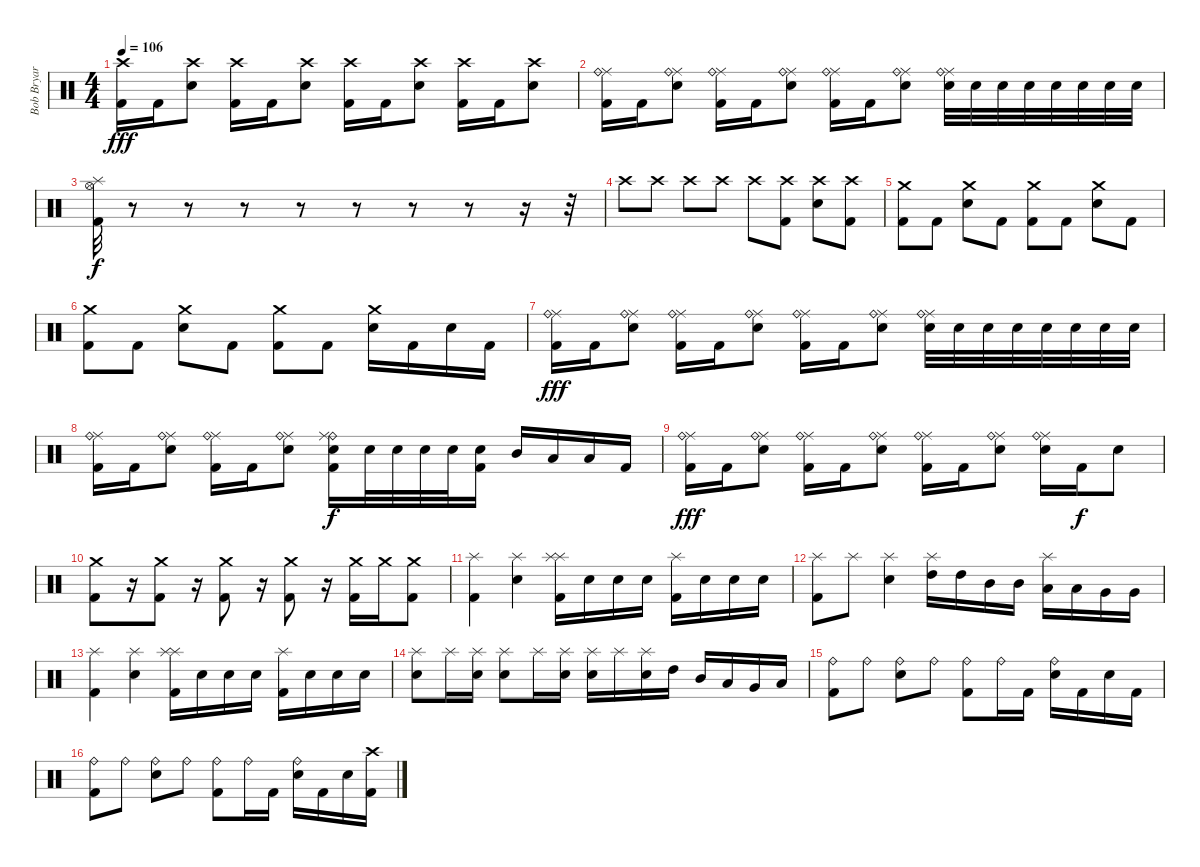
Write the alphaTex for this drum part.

\track ("Bob Bryar" "Bob Bryar") {instrument percussion}
\staff {score}
\articulation defaults
\ts (4 4)
\tempo 106
\clef neutral
\ks c
("Kick (hit) 2" "Crash high (hit)").16{dy fff} "Kick (hit) 2".16 ("Electric Snare (hit)" "Crash high (hit)").8 ("Kick (hit) 2" "Crash high (hit)").16 "Kick (hit) 2".16 ("Electric Snare (hit)" "Crash high (hit)").8 ("Kick (hit) 2" "Crash high (hit)").16 "Kick (hit) 2".16 ("Electric Snare (hit)" "Crash high (hit)").8 ("Kick (hit) 2" "Crash high (hit)").16 "Kick (hit) 2".16 ("Electric Snare (hit)" "Crash high (hit)").8 |
("Kick (hit) 2" "Ride (middle)" "Ride (bell)").16 "Kick (hit) 2".16 ("Electric Snare (hit)" "Ride (middle)" "Ride (bell)").8 ("Kick (hit) 2" "Ride (middle)" "Ride (bell)").16 "Kick (hit) 2".16 ("Electric Snare (hit)" "Ride (middle)" "Ride (bell)").8 ("Kick (hit) 2" "Ride (middle)" "Ride (bell)").16 "Kick (hit) 2".16 ("Electric Snare (hit)" "Ride (middle)" "Ride (bell)").8 ("Electric Snare (hit)" "Ride (middle)" "Ride (bell)").32 "Electric Snare (hit)".32 "Electric Snare (hit)".32 "Electric Snare (hit)".32 "Electric Snare (hit)".32 "Electric Snare (hit)".32 "Electric Snare (hit)".32 "Electric Snare (hit)".32 |
("Hi-Hat (open)" "Kick (hit) 2" "Splash (hit)").32{dy f} r.8 r.8 r.8 r.8 r.8 r.8 r.8 r.16 r.32 |
"Crash high (hit)".8{volume 6} "Crash high (hit)".8{volume 16} "Crash high (hit)".8 "Crash high (hit)".8 "Crash high (hit)".8 ("Crash high (hit)" "Kick (hit) 2").8 ("Crash high (hit)" "Electric Snare (hit)").8 ("Crash high (hit)" "Kick (hit) 2").8 |
("Kick (hit) 2" "Crash medium (hit)").8 "Kick (hit) 2".8 ("Electric Snare (hit)" "Crash medium (hit)").8 "Kick (hit) 2".8 ("Kick (hit) 2" "Crash medium (hit)").8 "Kick (hit) 2".8 ("Electric Snare (hit)" "Crash medium (hit)").8 "Kick (hit) 2".8 |
("Kick (hit) 2" "Crash medium (hit)").8 "Kick (hit) 2".8 ("Electric Snare (hit)" "Crash medium (hit)").8 "Kick (hit) 2".8 ("Kick (hit) 2" "Crash medium (hit)").8 "Kick (hit) 2".8 ("Electric Snare (hit)" "Crash medium (hit)").16 "Kick (hit) 2".16 "Electric Snare (hit)".16 "Kick (hit) 2".16 |
("Kick (hit) 2" "Ride (middle)" "Ride (bell)").16{dy fff} "Kick (hit) 2".16 ("Electric Snare (hit)" "Ride (middle)" "Ride (bell)").8 ("Kick (hit) 2" "Ride (middle)" "Ride (bell)").16 "Kick (hit) 2".16 ("Electric Snare (hit)" "Ride (middle)" "Ride (bell)").8 ("Kick (hit) 2" "Ride (middle)" "Ride (bell)").16 "Kick (hit) 2".16 ("Electric Snare (hit)" "Ride (middle)" "Ride (bell)").8 ("Electric Snare (hit)" "Ride (middle)" "Ride (bell)").32 "Electric Snare (hit)".32 "Electric Snare (hit)".32 "Electric Snare (hit)".32 "Electric Snare (hit)".32 "Electric Snare (hit)".32 "Electric Snare (hit)".32 "Electric Snare (hit)".32 |
("Kick (hit) 2" "Ride (middle)" "Ride (bell)").16 "Kick (hit) 2".16 ("Electric Snare (hit)" "Ride (middle)" "Ride (bell)").8 ("Kick (hit) 2" "Ride (middle)" "Ride (bell)").16 "Kick (hit) 2".16 ("Electric Snare (hit)" "Ride (middle)" "Ride (bell)").8 ("Kick (hit) 2" "Electric Snare (hit)" "Ride (bell)" "Ride (middle)").16{dy f} "Electric Snare (hit)".32 "Electric Snare (hit)".32 "Electric Snare (hit)".32 "Electric Snare (hit)".32 ("Electric Snare (hit)" "Kick (hit) 2").16 "Mid Tom (hit)".16 "Low Tom (hit)".16 "Low Floor Tom (hit)".16 "Kick (hit) 2".16 |
("Kick (hit) 2" "Ride (middle)" "Ride (bell)").16{dy fff} "Kick (hit) 2".16 ("Electric Snare (hit)" "Ride (middle)" "Ride (bell)").8 ("Kick (hit) 2" "Ride (middle)" "Ride (bell)").16 "Kick (hit) 2".16 ("Electric Snare (hit)" "Ride (middle)" "Ride (bell)").8 ("Kick (hit) 2" "Ride (middle)" "Ride (bell)").16 "Kick (hit) 2".16 ("Electric Snare (hit)" "Ride (middle)" "Ride (bell)").8 ("Electric Snare (hit)" "Ride (middle)" "Ride (bell)").16 "Kick (hit) 2".16{dy f} "Electric Snare (hit)".8 |
("Kick (hit) 2" "Crash medium (hit)").8 r.16 ("Crash medium (hit)" "Kick (hit) 2").8 r.16 ("Crash medium (hit)" "Kick (hit) 2").8 r.16 ("Crash medium (hit)" "Kick (hit) 2").8 r.16 ("Crash medium (hit)" "Kick (hit) 2").16 "Crash medium (hit)".16 ("Crash medium (hit)" "Kick (hit) 2").8 |
("Kick (hit) 2" "Splash (hit)").4 ("Electric Snare (hit)" "Splash (hit)").4 ("Kick (hit) 2" "Splash (hit)" "Splash (hit)").16 "Electric Snare (hit)".16 "Electric Snare (hit)".16 "Electric Snare (hit)".16 ("Kick (hit) 2" "Splash (hit)").16 "Electric Snare (hit)".16 "Electric Snare (hit)".16 "Electric Snare (hit)".16 |
("Kick (hit) 2" "Splash (hit)").8 "Splash (hit)".8 ("Electric Snare (hit)" "Splash (hit)").4 ("High Tom (hit)" "Splash (hit)").16 "High Tom (hit)".16 "Mid Tom (hit)".16 "Mid Tom (hit)".16 ("Low Tom (hit)" "Splash (hit)").16 "Low Tom (hit)".16 "Very Low Tom (hit)".16 "Very Low Tom (hit)".16 |
("Kick (hit) 2" "Splash (hit)").4 ("Electric Snare (hit)" "Splash (hit)").4 ("Kick (hit) 2" "Splash (hit)" "Splash (hit)").16 "Electric Snare (hit)".16 "Electric Snare (hit)".16 "Electric Snare (hit)".16 ("Kick (hit) 2" "Splash (hit)").16 "Electric Snare (hit)".16 "Electric Snare (hit)".16 "Electric Snare (hit)".16 |
("Electric Snare (hit)" "Splash (hit)").8 "Splash (hit)".16 ("Electric Snare (hit)" "Splash (hit)").16 ("Electric Snare (hit)" "Splash (hit)").8 "Splash (hit)".16 ("Electric Snare (hit)" "Splash (hit)").16 ("Electric Snare (hit)" "Splash (hit)").16 "Splash (hit)".16 ("Electric Snare (hit)" "Splash (hit)").16 "High Tom (hit)".16 "Mid Tom (hit)".16 "Low Tom (hit)".16 "Very Low Tom (hit)".16 "Low Floor Tom (hit)".16 |
("Kick (hit) 2" "Ride (bell)").8 "Ride (bell)".8 ("Electric Snare (hit)" "Ride (bell)").8 "Ride (bell)".8 ("Kick (hit) 2" "Ride (bell)").8 "Ride (bell)".16 "Kick (hit) 2".16 ("Electric Snare (hit)" "Ride (bell)").16 "Kick (hit) 2".16 "Electric Snare (hit)".16 "Kick (hit) 2".16 |
("Kick (hit) 2" "Ride (bell)").8 "Ride (bell)".8 ("Electric Snare (hit)" "Ride (bell)").8 "Ride (bell)".8 ("Kick (hit) 2" "Ride (bell)").8 "Ride (bell)".16 "Kick (hit) 2".16 ("Electric Snare (hit)" "Ride (bell)").16 "Kick (hit) 2".16 "Electric Snare (hit)".16 ("Kick (hit) 2" "Crash high (hit)").16
